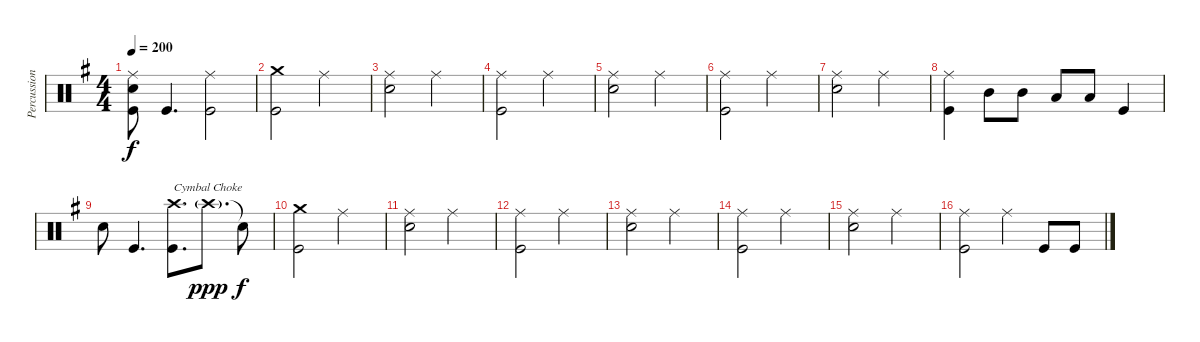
\track ("Percussion" "Percussion") {instrument percussion}
\staff {score}
\articulation defaults
\ts (4 4)
\tempo 200
\clef neutral
\ks g
("Ride (middle)" "Electric Snare (hit)" "Kick (hit)").8{dy f} "Kick (hit)".4{d} ("Ride (middle)" "Kick (hit)").2 |
("Crash medium (hit)" "Kick (hit)").2 "Ride (middle)".2 |
("Ride (middle)" "Electric Snare (hit)").2 "Ride (middle)".2 |
("Ride (middle)" "Kick (hit)").2 "Ride (middle)".2 |
("Ride (middle)" "Electric Snare (hit)").2 "Ride (middle)".2 |
("Ride (middle)" "Kick (hit)").2 "Ride (middle)".2 |
("Ride (middle)" "Electric Snare (hit)").2 "Ride (middle)".2 |
("Ride (middle)" "Kick (hit)").4 "Mid Tom (hit)".8 "Mid Tom (hit)".8 "Low Tom (hit)".8 "Low Tom (hit)".8 "Kick (hit)".4 |
"Electric Snare (hit)".8 "Kick (hit)".4{d} ("Crash high (hit)" "Kick (hit)").8{d txt "Cymbal Choke"} "Crash high (hit)"{g}.8{d dy ppp volume 0} "Snare (hit)"{t}.8{dy f} |
("Crash medium (hit)" "Kick (hit)").2{volume 13} "Ride (middle)".2 |
("Ride (middle)" "Electric Snare (hit)").2 "Ride (middle)".2 |
("Ride (middle)" "Kick (hit)").2 "Ride (middle)".2 |
("Ride (middle)" "Electric Snare (hit)").2 "Ride (middle)".2 |
("Ride (middle)" "Kick (hit)").2 "Ride (middle)".2 |
("Ride (middle)" "Electric Snare (hit)").2 "Ride (middle)".2 |
("Ride (middle)" "Kick (hit)").2 "Ride (middle)".4 "Kick (hit)".8 "Kick (hit)".8
